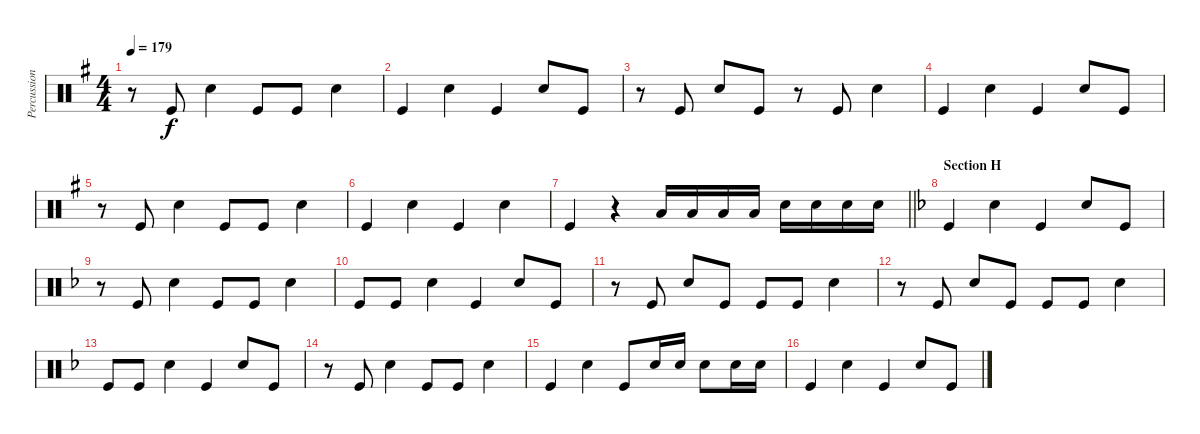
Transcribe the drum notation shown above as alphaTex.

\track ("Percussion 02" "Percussion") {instrument percussion}
\staff {score}
\articulation defaults
\ts (4 4)
\tempo 179
\clef neutral
\ks g
r.8{dy f} "Kick (hit)".8 "Snare (hit) 2".4 "Kick (hit)".8 "Kick (hit)".8 "Snare (hit) 2".4 |
"Kick (hit)".4 "Snare (hit) 2".4 "Kick (hit)".4 "Snare (hit) 2".8 "Kick (hit)".8 |
r.8 "Kick (hit)".8 "Snare (hit) 2".8 "Kick (hit)".8 r.8 "Kick (hit)".8 "Snare (hit) 2".4 |
"Kick (hit)".4 "Snare (hit) 2".4 "Kick (hit)".4 "Snare (hit) 2".8 "Kick (hit)".8 |
r.8 "Kick (hit)".8 "Snare (hit) 2".4 "Kick (hit)".8 "Kick (hit)".8 "Snare (hit) 2".4 |
"Kick (hit)".4 "Snare (hit) 2".4 "Kick (hit)".4 "Snare (hit) 2".4 |
\barLineRight lightlight "Kick (hit)".4
r.4 "Low Tom (hit)".16 "Low Tom (hit)".16 "Low Tom (hit)".16 "Low Tom (hit)".16 "Snare (hit) 2".16 "Snare (hit) 2".16 "Snare (hit) 2".16 "Snare (hit) 2".16 |
\section ("" "Section H")
\ks dminor "Kick (hit)".4 "Snare (hit) 2".4 "Kick (hit)".4 "Snare (hit) 2".8 "Kick (hit)".8
|
r.8 "Kick (hit)".8 "Snare (hit) 2".4 "Kick (hit)".8 "Kick (hit)".8 "Snare (hit) 2".4 |
"Kick (hit)".8 "Kick (hit)".8 "Snare (hit) 2".4 "Kick (hit)".4 "Snare (hit) 2".8 "Kick (hit)".8 |
r.8 "Kick (hit)".8 "Snare (hit) 2".8 "Kick (hit)".8 "Kick (hit)".8 "Kick (hit)".8 "Snare (hit) 2".4 |
r.8 "Kick (hit)".8 "Snare (hit) 2".8 "Kick (hit)".8 "Kick (hit)".8 "Kick (hit)".8 "Snare (hit) 2".4 |
"Kick (hit)".8 "Kick (hit)".8 "Snare (hit) 2".4 "Kick (hit)".4 "Snare (hit) 2".8 "Kick (hit)".8 |
r.8 "Kick (hit)".8 "Snare (hit) 2".4 "Kick (hit)".8 "Kick (hit)".8 "Snare (hit) 2".4 |
"Kick (hit)".4 "Snare (hit) 2".4 "Kick (hit)".8 "Snare (hit) 2".16 "Snare (hit) 2".16 "Snare (hit) 2".8 "Snare (hit) 2".16 "Snare (hit) 2".16 |
"Kick (hit)".4 "Snare (hit) 2".4 "Kick (hit)".4 "Snare (hit) 2".8 "Kick (hit)".8
